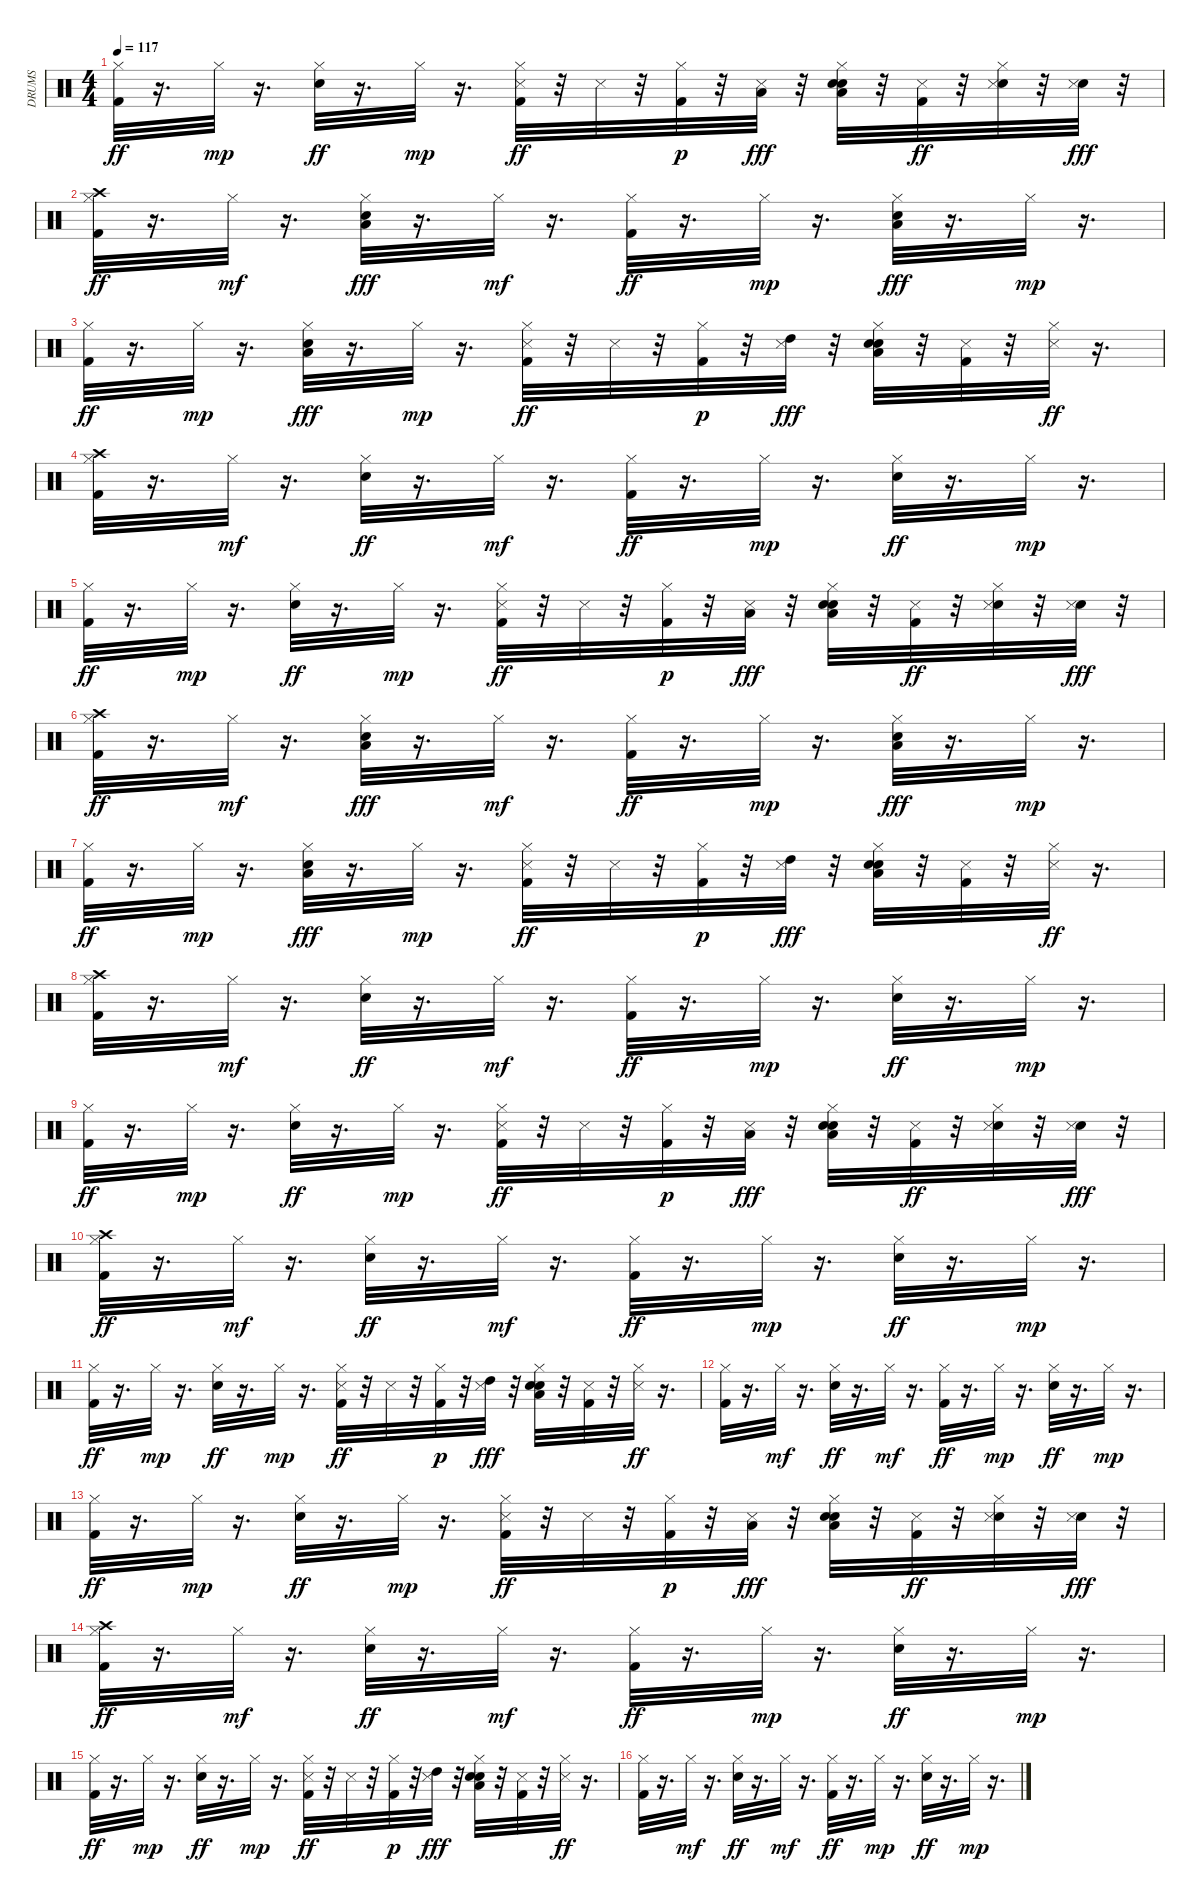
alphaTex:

\track ("DRUMS" "DRUMS") {instrument percussion}
\staff {score}
\articulation defaults
\ts (4 4)
\tempo 117
\clef neutral
\ks c
("Kick (hit) 2" "Hi-Hat (closed)").32{dy ff} r.16{d} "Hi-Hat (closed)".32{dy mp} r.16{d} ("Snare (hit) 2" "Hi-Hat (closed)").32{dy ff} r.16{d} "Hi-Hat (closed)".32{dy mp} r.16{d} ("Kick (hit) 2" "Hi-Hat (closed)" "Snare (side stick) 3").32{dy ff} r.32 "Snare (side stick) 3".32 r.32 ("Kick (hit) 2" "Hi-Hat (closed)").32{dy p} r.32 ("Low Tom (hit)" "Snare (side stick) 3").32{dy fff} r.32 ("Snare (hit) 2" "Hi-Hat (closed)" "Low Floor Tom (hit)" "Hand Clap (hit)").32 r.32 ("Kick (hit) 2" "Snare (side stick) 3").32{dy ff} r.32 ("Snare (hit) 2" "Hi-Hat (closed)" "Snare (side stick) 3").32 r.32 ("Snare (hit) 2" "Snare (side stick) 3").32{dy fff} r.32 |
("Crash high (hit)" "Kick (hit) 2" "Hi-Hat (closed)").32{dy ff} r.16{d} "Hi-Hat (closed)".32{dy mf} r.16{d} ("Snare (hit) 2" "Hi-Hat (closed)" "Low Tom (hit)").32{dy fff} r.16{d} "Hi-Hat (closed)".32{dy mf} r.16{d} ("Kick (hit) 2" "Hi-Hat (closed)").32{dy ff} r.16{d} "Hi-Hat (closed)".32{dy mp} r.16{d} ("Snare (hit) 2" "Hi-Hat (closed)" "Low Tom (hit)").32{dy fff} r.16{d} "Hi-Hat (closed)".32{dy mp} r.16{d} |
("Kick (hit) 2" "Hi-Hat (closed)").32{dy ff} r.16{d} "Hi-Hat (closed)".32{dy mp} r.16{d} ("Snare (hit) 2" "Hi-Hat (closed)" "Low Tom (hit)").32{dy fff} r.16{d} "Hi-Hat (closed)".32{dy mp} r.16{d} ("Kick (hit) 2" "Hi-Hat (closed)" "Snare (side stick) 3").32{dy ff} r.32 "Snare (side stick) 3".32 r.32 ("Kick (hit) 2" "Hi-Hat (closed)").32{dy p} r.32 ("High Tom (hit)" "Snare (side stick) 3").32{dy fff} r.32 ("Snare (hit) 2" "Hi-Hat (closed)" "Low Tom (hit)" "Hand Clap (hit)").32 r.32 ("Kick (hit) 2" "Snare (side stick) 3").32 r.32 ("Hi-Hat (closed)" "Snare (side stick) 3").32{dy ff} r.16{d} |
("Kick (hit) 2" "Hi-Hat (closed)" "Crash high (hit)").32 r.16{d} "Hi-Hat (closed)".32{dy mf} r.16{d} ("Snare (hit) 2" "Hi-Hat (closed)").32{dy ff} r.16{d} "Hi-Hat (closed)".32{dy mf} r.16{d} ("Kick (hit) 2" "Hi-Hat (closed)").32{dy ff} r.16{d} "Hi-Hat (closed)".32{dy mp} r.16{d} ("Snare (hit) 2" "Hi-Hat (closed)").32{dy ff} r.16{d} "Hi-Hat (closed)".32{dy mp} r.16{d} |
("Kick (hit) 2" "Hi-Hat (closed)").32{dy ff} r.16{d} "Hi-Hat (closed)".32{dy mp} r.16{d} ("Snare (hit) 2" "Hi-Hat (closed)").32{dy ff} r.16{d} "Hi-Hat (closed)".32{dy mp} r.16{d} ("Kick (hit) 2" "Hi-Hat (closed)" "Snare (side stick) 3").32{dy ff} r.32 "Snare (side stick) 3".32 r.32 ("Kick (hit) 2" "Hi-Hat (closed)").32{dy p} r.32 ("Low Tom (hit)" "Snare (side stick) 3").32{dy fff} r.32 ("Snare (hit) 2" "Hi-Hat (closed)" "Low Floor Tom (hit)" "Hand Clap (hit)").32 r.32 ("Kick (hit) 2" "Snare (side stick) 3").32{dy ff} r.32 ("Snare (hit) 2" "Hi-Hat (closed)" "Snare (side stick) 3").32 r.32 ("Snare (hit) 2" "Snare (side stick) 3").32{dy fff} r.32 |
("Crash high (hit)" "Kick (hit) 2" "Hi-Hat (closed)").32{dy ff} r.16{d} "Hi-Hat (closed)".32{dy mf} r.16{d} ("Snare (hit) 2" "Hi-Hat (closed)" "Low Tom (hit)").32{dy fff} r.16{d} "Hi-Hat (closed)".32{dy mf} r.16{d} ("Kick (hit) 2" "Hi-Hat (closed)").32{dy ff} r.16{d} "Hi-Hat (closed)".32{dy mp} r.16{d} ("Snare (hit) 2" "Hi-Hat (closed)" "Low Tom (hit)").32{dy fff} r.16{d} "Hi-Hat (closed)".32{dy mp} r.16{d} |
("Kick (hit) 2" "Hi-Hat (closed)").32{dy ff} r.16{d} "Hi-Hat (closed)".32{dy mp} r.16{d} ("Snare (hit) 2" "Hi-Hat (closed)" "Low Tom (hit)").32{dy fff} r.16{d} "Hi-Hat (closed)".32{dy mp} r.16{d} ("Kick (hit) 2" "Hi-Hat (closed)" "Snare (side stick) 3").32{dy ff} r.32 "Snare (side stick) 3".32 r.32 ("Kick (hit) 2" "Hi-Hat (closed)").32{dy p} r.32 ("High Tom (hit)" "Snare (side stick) 3").32{dy fff} r.32 ("Snare (hit) 2" "Hi-Hat (closed)" "Low Tom (hit)" "Hand Clap (hit)").32 r.32 ("Kick (hit) 2" "Snare (side stick) 3").32 r.32 ("Hi-Hat (closed)" "Snare (side stick) 3").32{dy ff} r.16{d} |
("Kick (hit) 2" "Hi-Hat (closed)" "Crash high (hit)").32 r.16{d} "Hi-Hat (closed)".32{dy mf} r.16{d} ("Snare (hit) 2" "Hi-Hat (closed)").32{dy ff} r.16{d} "Hi-Hat (closed)".32{dy mf} r.16{d} ("Kick (hit) 2" "Hi-Hat (closed)").32{dy ff} r.16{d} "Hi-Hat (closed)".32{dy mp} r.16{d} ("Snare (hit) 2" "Hi-Hat (closed)").32{dy ff} r.16{d} "Hi-Hat (closed)".32{dy mp} r.16{d} |
("Kick (hit) 2" "Hi-Hat (closed)").32{dy ff} r.16{d} "Hi-Hat (closed)".32{dy mp} r.16{d} ("Snare (hit) 2" "Hi-Hat (closed)").32{dy ff} r.16{d} "Hi-Hat (closed)".32{dy mp} r.16{d} ("Kick (hit) 2" "Hi-Hat (closed)" "Snare (side stick) 3").32{dy ff} r.32 "Snare (side stick) 3".32 r.32 ("Kick (hit) 2" "Hi-Hat (closed)").32{dy p} r.32 ("Low Tom (hit)" "Snare (side stick) 3").32{dy fff} r.32 ("Snare (hit) 2" "Hi-Hat (closed)" "Low Floor Tom (hit)" "Hand Clap (hit)").32 r.32 ("Kick (hit) 2" "Snare (side stick) 3").32{dy ff} r.32 ("Snare (hit) 2" "Hi-Hat (closed)" "Snare (side stick) 3").32 r.32 ("Snare (hit) 2" "Snare (side stick) 3").32{dy fff} r.32 |
("Crash high (hit)" "Kick (hit) 2" "Hi-Hat (closed)").32{dy ff} r.16{d} "Hi-Hat (closed)".32{dy mf} r.16{d} ("Snare (hit) 2" "Hi-Hat (closed)").32{dy ff} r.16{d} "Hi-Hat (closed)".32{dy mf} r.16{d} ("Kick (hit) 2" "Hi-Hat (closed)").32{dy ff} r.16{d} "Hi-Hat (closed)".32{dy mp} r.16{d} ("Snare (hit) 2" "Hi-Hat (closed)").32{dy ff} r.16{d} "Hi-Hat (closed)".32{dy mp} r.16{d} |
("Kick (hit) 2" "Hi-Hat (closed)").32{dy ff} r.16{d} "Hi-Hat (closed)".32{dy mp} r.16{d} ("Snare (hit) 2" "Hi-Hat (closed)").32{dy ff} r.16{d} "Hi-Hat (closed)".32{dy mp} r.16{d} ("Kick (hit) 2" "Hi-Hat (closed)" "Snare (side stick) 3").32{dy ff} r.32 "Snare (side stick) 3".32 r.32 ("Kick (hit) 2" "Hi-Hat (closed)").32{dy p} r.32 ("High Tom (hit)" "Snare (side stick) 3").32{dy fff} r.32 ("Snare (hit) 2" "Hi-Hat (closed)" "Low Tom (hit)" "Hand Clap (hit)").32 r.32 ("Kick (hit) 2" "Snare (side stick) 3").32 r.32 ("Hi-Hat (closed)" "Snare (side stick) 3").32{dy ff} r.16{d} |
("Kick (hit) 2" "Hi-Hat (closed)").32 r.16{d} "Hi-Hat (closed)".32{dy mf} r.16{d} ("Snare (hit) 2" "Hi-Hat (closed)").32{dy ff} r.16{d} "Hi-Hat (closed)".32{dy mf} r.16{d} ("Kick (hit) 2" "Hi-Hat (closed)").32{dy ff} r.16{d} "Hi-Hat (closed)".32{dy mp} r.16{d} ("Snare (hit) 2" "Hi-Hat (closed)").32{dy ff} r.16{d} "Hi-Hat (closed)".32{dy mp} r.16{d} |
("Kick (hit) 2" "Hi-Hat (closed)").32{dy ff} r.16{d} "Hi-Hat (closed)".32{dy mp} r.16{d} ("Snare (hit) 2" "Hi-Hat (closed)").32{dy ff} r.16{d} "Hi-Hat (closed)".32{dy mp} r.16{d} ("Kick (hit) 2" "Hi-Hat (closed)" "Snare (side stick) 3").32{dy ff} r.32 "Snare (side stick) 3".32 r.32 ("Kick (hit) 2" "Hi-Hat (closed)").32{dy p} r.32 ("Low Tom (hit)" "Snare (side stick) 3").32{dy fff} r.32 ("Snare (hit) 2" "Hi-Hat (closed)" "Low Floor Tom (hit)" "Hand Clap (hit)").32 r.32 ("Kick (hit) 2" "Snare (side stick) 3").32{dy ff} r.32 ("Snare (hit) 2" "Hi-Hat (closed)" "Snare (side stick) 3").32 r.32 ("Snare (hit) 2" "Snare (side stick) 3").32{dy fff} r.32 |
("Crash high (hit)" "Kick (hit) 2" "Hi-Hat (closed)").32{dy ff} r.16{d} "Hi-Hat (closed)".32{dy mf} r.16{d} ("Snare (hit) 2" "Hi-Hat (closed)").32{dy ff} r.16{d} "Hi-Hat (closed)".32{dy mf} r.16{d} ("Kick (hit) 2" "Hi-Hat (closed)").32{dy ff} r.16{d} "Hi-Hat (closed)".32{dy mp} r.16{d} ("Snare (hit) 2" "Hi-Hat (closed)").32{dy ff} r.16{d} "Hi-Hat (closed)".32{dy mp} r.16{d} |
("Kick (hit) 2" "Hi-Hat (closed)").32{dy ff} r.16{d} "Hi-Hat (closed)".32{dy mp} r.16{d} ("Snare (hit) 2" "Hi-Hat (closed)").32{dy ff} r.16{d} "Hi-Hat (closed)".32{dy mp} r.16{d} ("Kick (hit) 2" "Hi-Hat (closed)" "Snare (side stick) 3").32{dy ff} r.32 "Snare (side stick) 3".32 r.32 ("Kick (hit) 2" "Hi-Hat (closed)").32{dy p} r.32 ("High Tom (hit)" "Snare (side stick) 3").32{dy fff} r.32 ("Snare (hit) 2" "Hi-Hat (closed)" "Low Tom (hit)" "Hand Clap (hit)").32 r.32 ("Kick (hit) 2" "Snare (side stick) 3").32 r.32 ("Hi-Hat (closed)" "Snare (side stick) 3").32{dy ff} r.16{d} |
("Kick (hit) 2" "Hi-Hat (closed)").32 r.16{d} "Hi-Hat (closed)".32{dy mf} r.16{d} ("Snare (hit) 2" "Hi-Hat (closed)").32{dy ff} r.16{d} "Hi-Hat (closed)".32{dy mf} r.16{d} ("Kick (hit) 2" "Hi-Hat (closed)").32{dy ff} r.16{d} "Hi-Hat (closed)".32{dy mp} r.16{d} ("Snare (hit) 2" "Hi-Hat (closed)").32{dy ff} r.16{d} "Hi-Hat (closed)".32{dy mp} r.16{d}
